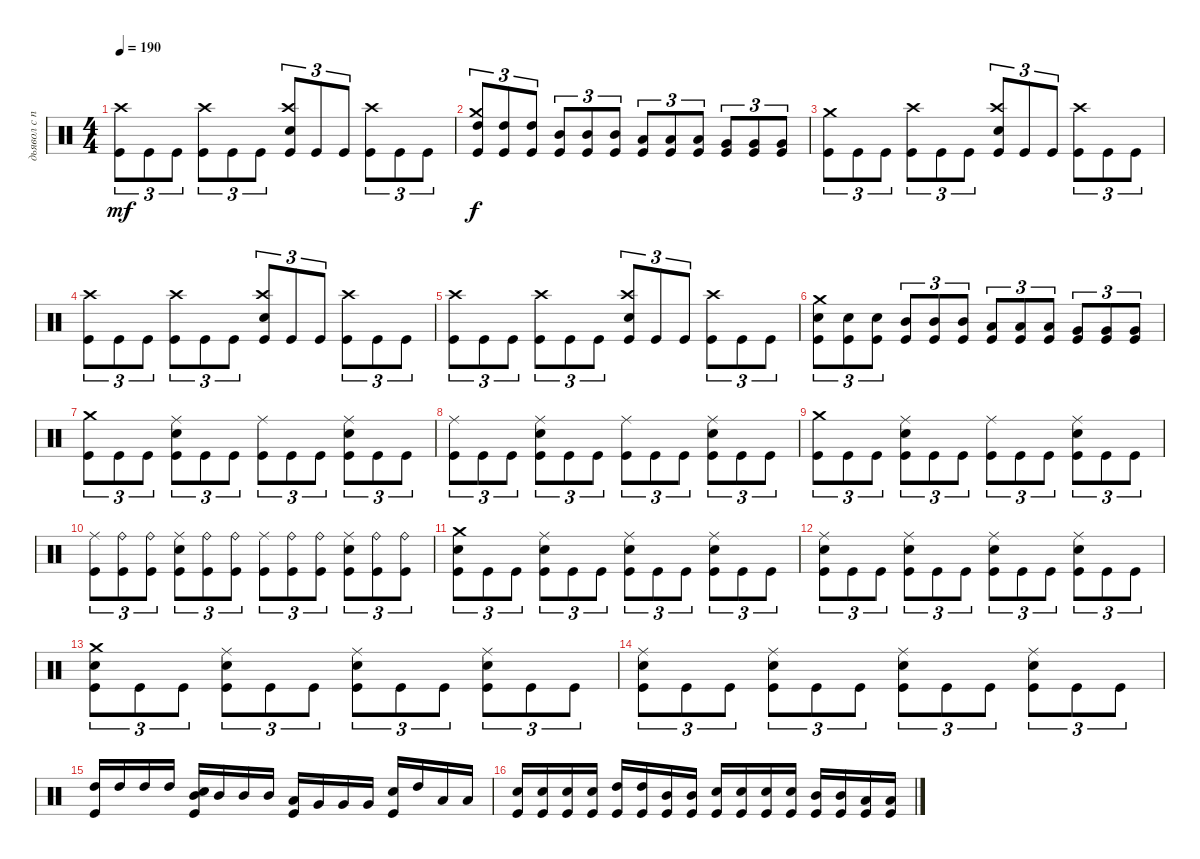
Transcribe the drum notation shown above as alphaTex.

\track ("дьявол с палками" "дьявол с п") {instrument percussion}
\staff {score}
\articulation defaults
\ts (4 4)
\tempo 190
\clef neutral
\ks c
("Kick (hit)" "Crash high (hit)").8{tu (3 2) dy mf} "Kick (hit)".8{tu (3 2)} "Kick (hit)".8{tu (3 2)} ("Kick (hit)" "Crash high (hit)").8{tu (3 2)} "Kick (hit)".8{tu (3 2)} "Kick (hit)".8{tu (3 2)} ("Kick (hit)" "Snare (hit) 2" "Crash high (hit)").8{tu (3 2)} "Kick (hit)".8{tu (3 2)} "Kick (hit)".8{tu (3 2)} ("Kick (hit)" "Crash high (hit)").8{tu (3 2)} "Kick (hit)".8{tu (3 2)} "Kick (hit)".8{tu (3 2)} |
("Kick (hit)" "Crash medium (hit)" "High Tom (hit)").8{tu (3 2) dy f} ("Kick (hit)" "High Tom (hit)").8{tu (3 2)} ("Kick (hit)" "High Tom (hit)").8{tu (3 2)} ("Kick (hit)" "Mid Tom (hit)").8{tu (3 2)} ("Kick (hit)" "Mid Tom (hit)").8{tu (3 2)} ("Kick (hit)" "Mid Tom (hit)").8{tu (3 2)} ("Kick (hit)" "Low Tom (hit)").8{tu (3 2)} ("Kick (hit)" "Low Tom (hit)").8{tu (3 2)} ("Kick (hit)" "Low Tom (hit)").8{tu (3 2)} ("Kick (hit)" "Very Low Tom (hit)").8{tu (3 2)} ("Kick (hit)" "Very Low Tom (hit)").8{tu (3 2)} ("Kick (hit)" "Very Low Tom (hit)").8{tu (3 2)} |
("Kick (hit)" "Crash medium (hit)").8{tu (3 2)} "Kick (hit)".8{tu (3 2)} "Kick (hit)".8{tu (3 2)} ("Kick (hit)" "Crash high (hit)").8{tu (3 2)} "Kick (hit)".8{tu (3 2)} "Kick (hit)".8{tu (3 2)} ("Kick (hit)" "Snare (hit) 2" "Crash high (hit)").8{tu (3 2)} "Kick (hit)".8{tu (3 2)} "Kick (hit)".8{tu (3 2)} ("Kick (hit)" "Crash high (hit)").8{tu (3 2)} "Kick (hit)".8{tu (3 2)} "Kick (hit)".8{tu (3 2)} |
("Kick (hit)" "Crash high (hit)").8{tu (3 2)} "Kick (hit)".8{tu (3 2)} "Kick (hit)".8{tu (3 2)} ("Kick (hit)" "Crash high (hit)").8{tu (3 2)} "Kick (hit)".8{tu (3 2)} "Kick (hit)".8{tu (3 2)} ("Kick (hit)" "Snare (hit) 2" "Crash high (hit)").8{tu (3 2)} "Kick (hit)".8{tu (3 2)} "Kick (hit)".8{tu (3 2)} ("Kick (hit)" "Crash high (hit)").8{tu (3 2)} "Kick (hit)".8{tu (3 2)} "Kick (hit)".8{tu (3 2)} |
("Kick (hit)" "Crash high (hit)").8{tu (3 2)} "Kick (hit)".8{tu (3 2)} "Kick (hit)".8{tu (3 2)} ("Kick (hit)" "Crash high (hit)").8{tu (3 2)} "Kick (hit)".8{tu (3 2)} "Kick (hit)".8{tu (3 2)} ("Kick (hit)" "Snare (hit) 2" "Crash high (hit)").8{tu (3 2)} "Kick (hit)".8{tu (3 2)} "Kick (hit)".8{tu (3 2)} ("Kick (hit)" "Crash high (hit)").8{tu (3 2)} "Kick (hit)".8{tu (3 2)} "Kick (hit)".8{tu (3 2)} |
("Kick (hit)" "Crash medium (hit)" "Snare (hit) 2").8{tu (3 2)} ("Kick (hit)" "Snare (hit) 2").8{tu (3 2)} ("Kick (hit)" "Snare (hit) 2").8{tu (3 2)} ("Kick (hit)" "Mid Tom (hit)").8{tu (3 2)} ("Kick (hit)" "Mid Tom (hit)").8{tu (3 2)} ("Kick (hit)" "Mid Tom (hit)").8{tu (3 2)} ("Kick (hit)" "Low Tom (hit)").8{tu (3 2)} ("Kick (hit)" "Low Tom (hit)").8{tu (3 2)} ("Kick (hit)" "Low Tom (hit)").8{tu (3 2)} ("Kick (hit)" "Very Low Tom (hit)").8{tu (3 2)} ("Kick (hit)" "Very Low Tom (hit)").8{tu (3 2)} ("Kick (hit)" "Very Low Tom (hit)").8{tu (3 2)} |
("Kick (hit)" "Crash medium (hit)").8{tu (3 2)} "Kick (hit)".8{tu (3 2)} "Kick (hit)".8{tu (3 2)} ("Kick (hit)" "Snare (hit) 2" "Ride (middle)").8{tu (3 2)} "Kick (hit)".8{tu (3 2)} "Kick (hit)".8{tu (3 2)} ("Kick (hit)" "Ride (middle)").8{tu (3 2)} "Kick (hit)".8{tu (3 2)} "Kick (hit)".8{tu (3 2)} ("Kick (hit)" "Snare (hit) 2" "Ride (middle)").8{tu (3 2)} "Kick (hit)".8{tu (3 2)} "Kick (hit)".8{tu (3 2)} |
("Kick (hit)" "Ride (middle)").8{tu (3 2)} "Kick (hit)".8{tu (3 2)} "Kick (hit)".8{tu (3 2)} ("Kick (hit)" "Snare (hit) 2" "Ride (middle)").8{tu (3 2)} "Kick (hit)".8{tu (3 2)} "Kick (hit)".8{tu (3 2)} ("Kick (hit)" "Ride (middle)").8{tu (3 2)} "Kick (hit)".8{tu (3 2)} "Kick (hit)".8{tu (3 2)} ("Kick (hit)" "Snare (hit) 2" "Ride (middle)").8{tu (3 2)} "Kick (hit)".8{tu (3 2)} "Kick (hit)".8{tu (3 2)} |
("Kick (hit)" "Crash medium (hit)").8{tu (3 2)} "Kick (hit)".8{tu (3 2)} "Kick (hit)".8{tu (3 2)} ("Kick (hit)" "Snare (hit) 2" "Ride (middle)").8{tu (3 2)} "Kick (hit)".8{tu (3 2)} "Kick (hit)".8{tu (3 2)} ("Kick (hit)" "Ride (middle)").8{tu (3 2)} "Kick (hit)".8{tu (3 2)} "Kick (hit)".8{tu (3 2)} ("Kick (hit)" "Snare (hit) 2" "Ride (middle)").8{tu (3 2)} "Kick (hit)".8{tu (3 2)} "Kick (hit)".8{tu (3 2)} |
("Kick (hit)" "Ride (middle)").8{tu (3 2)} ("Kick (hit)" "Ride (bell)").8{tu (3 2)} ("Kick (hit)" "Ride (bell)").8{tu (3 2)} ("Kick (hit)" "Snare (hit) 2" "Ride (middle)").8{tu (3 2)} ("Kick (hit)" "Ride (bell)").8{tu (3 2)} ("Kick (hit)" "Ride (bell)").8{tu (3 2)} ("Kick (hit)" "Ride (middle)").8{tu (3 2)} ("Kick (hit)" "Ride (bell)").8{tu (3 2)} ("Kick (hit)" "Ride (bell)").8{tu (3 2)} ("Kick (hit)" "Snare (hit) 2" "Ride (middle)").8{tu (3 2)} ("Kick (hit)" "Ride (bell)").8{tu (3 2)} ("Kick (hit)" "Ride (bell)").8{tu (3 2)} |
("Kick (hit)" "Crash medium (hit)" "Snare (hit) 2").8{tu (3 2)} "Kick (hit)".8{tu (3 2)} "Kick (hit)".8{tu (3 2)} ("Kick (hit)" "Snare (hit) 2" "Ride (middle)").8{tu (3 2)} "Kick (hit)".8{tu (3 2)} "Kick (hit)".8{tu (3 2)} ("Kick (hit)" "Ride (middle)" "Snare (hit) 2").8{tu (3 2)} "Kick (hit)".8{tu (3 2)} "Kick (hit)".8{tu (3 2)} ("Kick (hit)" "Snare (hit) 2" "Ride (middle)").8{tu (3 2)} "Kick (hit)".8{tu (3 2)} "Kick (hit)".8{tu (3 2)} |
("Kick (hit)" "Ride (middle)" "Snare (hit) 2").8{tu (3 2)} "Kick (hit)".8{tu (3 2)} "Kick (hit)".8{tu (3 2)} ("Kick (hit)" "Snare (hit) 2" "Ride (middle)").8{tu (3 2)} "Kick (hit)".8{tu (3 2)} "Kick (hit)".8{tu (3 2)} ("Kick (hit)" "Ride (middle)" "Snare (hit) 2").8{tu (3 2)} "Kick (hit)".8{tu (3 2)} "Kick (hit)".8{tu (3 2)} ("Kick (hit)" "Snare (hit) 2" "Ride (middle)").8{tu (3 2)} "Kick (hit)".8{tu (3 2)} "Kick (hit)".8{tu (3 2)} |
("Kick (hit)" "Crash medium (hit)" "Snare (hit) 2").8{tu (3 2)} "Kick (hit)".8{tu (3 2)} "Kick (hit)".8{tu (3 2)} ("Kick (hit)" "Snare (hit) 2" "Ride (middle)").8{tu (3 2)} "Kick (hit)".8{tu (3 2)} "Kick (hit)".8{tu (3 2)} ("Kick (hit)" "Ride (middle)" "Snare (hit) 2").8{tu (3 2)} "Kick (hit)".8{tu (3 2)} "Kick (hit)".8{tu (3 2)} ("Kick (hit)" "Snare (hit) 2" "Ride (middle)").8{tu (3 2)} "Kick (hit)".8{tu (3 2)} "Kick (hit)".8{tu (3 2)} |
("Kick (hit)" "Ride (middle)" "Snare (hit) 2").8{tu (3 2)} "Kick (hit)".8{tu (3 2)} "Kick (hit)".8{tu (3 2)} ("Kick (hit)" "Snare (hit) 2" "Ride (middle)").8{tu (3 2)} "Kick (hit)".8{tu (3 2)} "Kick (hit)".8{tu (3 2)} ("Kick (hit)" "Ride (middle)" "Snare (hit) 2").8{tu (3 2)} "Kick (hit)".8{tu (3 2)} "Kick (hit)".8{tu (3 2)} ("Kick (hit)" "Snare (hit) 2" "Ride (middle)").8{tu (3 2)} "Kick (hit)".8{tu (3 2)} "Kick (hit)".8{tu (3 2)} |
("Kick (hit)" "High Tom (hit)").16 "High Tom (hit)".16 "High Tom (hit)".16 "High Tom (hit)".16 ("Kick (hit)" "Mid Tom (hit)" "Snare (hit) 2").16 "Mid Tom (hit)".16 "Mid Tom (hit)".16 "Mid Tom (hit)".16 ("Kick (hit)" "Low Tom (hit)").16 "Very Low Tom (hit)".16 "Very Low Tom (hit)".16 "Very Low Tom (hit)".16 ("Kick (hit)" "Snare (hit) 2").16 "High Tom (hit)".16 "Low Tom (hit)".16 "Low Tom (hit)".16 |
("Kick (hit)" "Snare (hit) 2").16 ("Kick (hit)" "Snare (hit) 2").16 ("Kick (hit)" "Snare (hit) 2").16 ("Kick (hit)" "Snare (hit) 2").16 ("Kick (hit)" "High Tom (hit)").16 ("Kick (hit)" "High Tom (hit)").16 ("Kick (hit)" "Mid Tom (hit)").16 ("Kick (hit)" "Mid Tom (hit)").16 ("Kick (hit)" "Snare (hit) 2").16 ("Kick (hit)" "Snare (hit) 2").16 ("Kick (hit)" "Snare (hit) 2").16 ("Kick (hit)" "Snare (hit) 2").16 ("Kick (hit)" "Mid Tom (hit)").16 ("Kick (hit)" "Mid Tom (hit)").16 ("Kick (hit)" "Low Tom (hit)").16 ("Kick (hit)" "Low Tom (hit)").16
